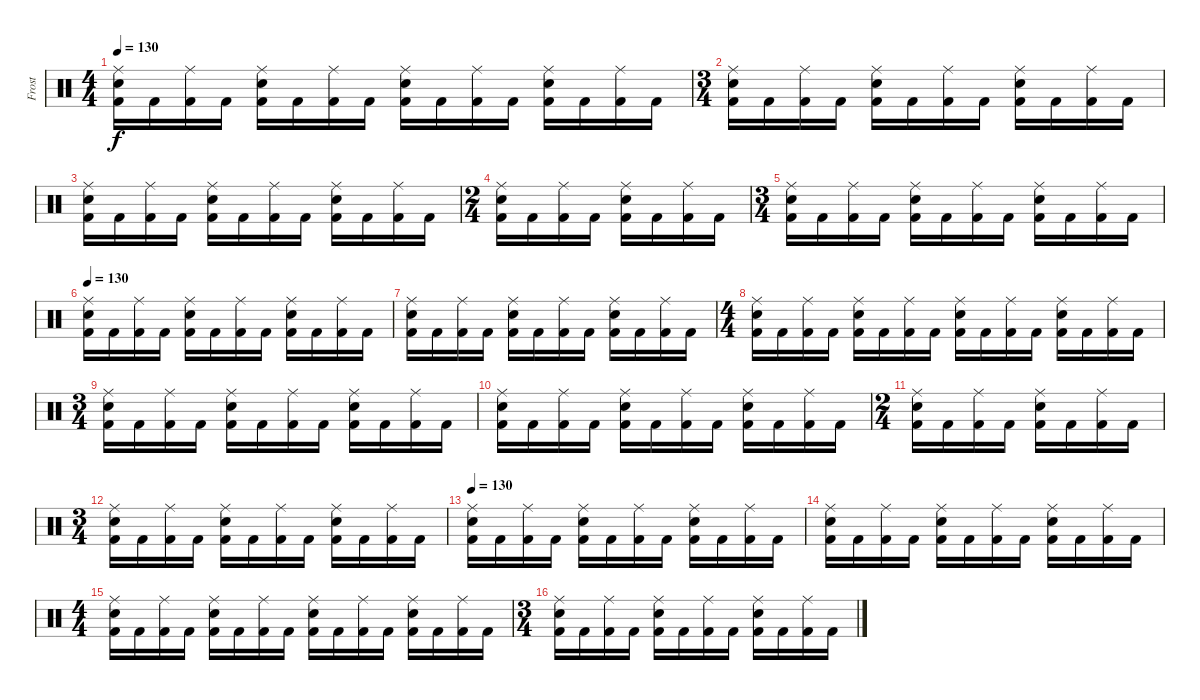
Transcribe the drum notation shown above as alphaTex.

\track ("Frost" "Frost") {instrument percussion}
\staff {score}
\articulation defaults
\ts (4 4)
\tempo 130
\clef neutral
\ks c
("Kick (hit) 2" "Ride (middle)" "Snare (hit) 2").16{dy f} "Kick (hit) 2".16 ("Kick (hit) 2" "Ride (middle)").16 "Kick (hit) 2".16 ("Kick (hit) 2" "Ride (middle)" "Snare (hit) 2").16 "Kick (hit) 2".16 ("Kick (hit) 2" "Ride (middle)").16 "Kick (hit) 2".16 ("Kick (hit) 2" "Ride (middle)" "Snare (hit) 2").16 "Kick (hit) 2".16 ("Kick (hit) 2" "Ride (middle)").16 "Kick (hit) 2".16 ("Kick (hit) 2" "Ride (middle)" "Snare (hit) 2").16 "Kick (hit) 2".16 ("Kick (hit) 2" "Ride (middle)").16 "Kick (hit) 2".16 |
\ts (3 4)
("Kick (hit) 2" "Ride (middle)" "Snare (hit) 2").16 "Kick (hit) 2".16 ("Kick (hit) 2" "Ride (middle)").16 "Kick (hit) 2".16 ("Kick (hit) 2" "Ride (middle)" "Snare (hit) 2").16 "Kick (hit) 2".16 ("Kick (hit) 2" "Ride (middle)").16 "Kick (hit) 2".16 ("Kick (hit) 2" "Ride (middle)" "Snare (hit) 2").16 "Kick (hit) 2".16 ("Kick (hit) 2" "Ride (middle)").16 "Kick (hit) 2".16 |
("Kick (hit) 2" "Ride (middle)" "Snare (hit) 2").16 "Kick (hit) 2".16 ("Kick (hit) 2" "Ride (middle)").16 "Kick (hit) 2".16 ("Kick (hit) 2" "Ride (middle)" "Snare (hit) 2").16 "Kick (hit) 2".16 ("Kick (hit) 2" "Ride (middle)").16 "Kick (hit) 2".16 ("Kick (hit) 2" "Ride (middle)" "Snare (hit) 2").16 "Kick (hit) 2".16 ("Kick (hit) 2" "Ride (middle)").16 "Kick (hit) 2".16 |
\ts (2 4)
("Kick (hit) 2" "Ride (middle)" "Snare (hit) 2").16 "Kick (hit) 2".16 ("Kick (hit) 2" "Ride (middle)").16 "Kick (hit) 2".16 ("Kick (hit) 2" "Ride (middle)" "Snare (hit) 2").16 "Kick (hit) 2".16 ("Kick (hit) 2" "Ride (middle)").16 "Kick (hit) 2".16 |
\ts (3 4)
("Kick (hit) 2" "Ride (middle)" "Snare (hit) 2").16 "Kick (hit) 2".16 ("Kick (hit) 2" "Ride (middle)").16 "Kick (hit) 2".16 ("Kick (hit) 2" "Ride (middle)" "Snare (hit) 2").16 "Kick (hit) 2".16 ("Kick (hit) 2" "Ride (middle)").16 "Kick (hit) 2".16 ("Kick (hit) 2" "Ride (middle)" "Snare (hit) 2").16 "Kick (hit) 2".16 ("Kick (hit) 2" "Ride (middle)").16 "Kick (hit) 2".16 |
\tempo 130
("Kick (hit) 2" "Ride (middle)" "Snare (hit) 2").16 "Kick (hit) 2".16 ("Kick (hit) 2" "Ride (middle)").16 "Kick (hit) 2".16 ("Kick (hit) 2" "Ride (middle)" "Snare (hit) 2").16 "Kick (hit) 2".16 ("Kick (hit) 2" "Ride (middle)").16 "Kick (hit) 2".16 ("Kick (hit) 2" "Ride (middle)" "Snare (hit) 2").16 "Kick (hit) 2".16 ("Kick (hit) 2" "Ride (middle)").16 "Kick (hit) 2".16 |
("Kick (hit) 2" "Ride (middle)" "Snare (hit) 2").16 "Kick (hit) 2".16 ("Kick (hit) 2" "Ride (middle)").16 "Kick (hit) 2".16 ("Kick (hit) 2" "Ride (middle)" "Snare (hit) 2").16 "Kick (hit) 2".16 ("Kick (hit) 2" "Ride (middle)").16 "Kick (hit) 2".16 ("Kick (hit) 2" "Ride (middle)" "Snare (hit) 2").16 "Kick (hit) 2".16 ("Kick (hit) 2" "Ride (middle)").16 "Kick (hit) 2".16 |
\ts (4 4)
("Kick (hit) 2" "Ride (middle)" "Snare (hit) 2").16 "Kick (hit) 2".16 ("Kick (hit) 2" "Ride (middle)").16 "Kick (hit) 2".16 ("Kick (hit) 2" "Ride (middle)" "Snare (hit) 2").16 "Kick (hit) 2".16 ("Kick (hit) 2" "Ride (middle)").16 "Kick (hit) 2".16 ("Kick (hit) 2" "Ride (middle)" "Snare (hit) 2").16 "Kick (hit) 2".16 ("Kick (hit) 2" "Ride (middle)").16 "Kick (hit) 2".16 ("Kick (hit) 2" "Ride (middle)" "Snare (hit) 2").16 "Kick (hit) 2".16 ("Kick (hit) 2" "Ride (middle)").16 "Kick (hit) 2".16 |
\ts (3 4)
("Kick (hit) 2" "Ride (middle)" "Snare (hit) 2").16 "Kick (hit) 2".16 ("Kick (hit) 2" "Ride (middle)").16 "Kick (hit) 2".16 ("Kick (hit) 2" "Ride (middle)" "Snare (hit) 2").16 "Kick (hit) 2".16 ("Kick (hit) 2" "Ride (middle)").16 "Kick (hit) 2".16 ("Kick (hit) 2" "Ride (middle)" "Snare (hit) 2").16 "Kick (hit) 2".16 ("Kick (hit) 2" "Ride (middle)").16 "Kick (hit) 2".16 |
("Kick (hit) 2" "Ride (middle)" "Snare (hit) 2").16 "Kick (hit) 2".16 ("Kick (hit) 2" "Ride (middle)").16 "Kick (hit) 2".16 ("Kick (hit) 2" "Ride (middle)" "Snare (hit) 2").16 "Kick (hit) 2".16 ("Kick (hit) 2" "Ride (middle)").16 "Kick (hit) 2".16 ("Kick (hit) 2" "Ride (middle)" "Snare (hit) 2").16 "Kick (hit) 2".16 ("Kick (hit) 2" "Ride (middle)").16 "Kick (hit) 2".16 |
\ts (2 4)
("Kick (hit) 2" "Ride (middle)" "Snare (hit) 2").16 "Kick (hit) 2".16 ("Kick (hit) 2" "Ride (middle)").16 "Kick (hit) 2".16 ("Kick (hit) 2" "Ride (middle)" "Snare (hit) 2").16 "Kick (hit) 2".16 ("Kick (hit) 2" "Ride (middle)").16 "Kick (hit) 2".16 |
\ts (3 4)
("Kick (hit) 2" "Ride (middle)" "Snare (hit) 2").16 "Kick (hit) 2".16 ("Kick (hit) 2" "Ride (middle)").16 "Kick (hit) 2".16 ("Kick (hit) 2" "Ride (middle)" "Snare (hit) 2").16 "Kick (hit) 2".16 ("Kick (hit) 2" "Ride (middle)").16 "Kick (hit) 2".16 ("Kick (hit) 2" "Ride (middle)" "Snare (hit) 2").16 "Kick (hit) 2".16 ("Kick (hit) 2" "Ride (middle)").16 "Kick (hit) 2".16 |
\tempo 130
("Kick (hit) 2" "Ride (middle)" "Snare (hit) 2").16 "Kick (hit) 2".16 ("Kick (hit) 2" "Ride (middle)").16 "Kick (hit) 2".16 ("Kick (hit) 2" "Ride (middle)" "Snare (hit) 2").16 "Kick (hit) 2".16 ("Kick (hit) 2" "Ride (middle)").16 "Kick (hit) 2".16 ("Kick (hit) 2" "Ride (middle)" "Snare (hit) 2").16 "Kick (hit) 2".16 ("Kick (hit) 2" "Ride (middle)").16 "Kick (hit) 2".16 |
("Kick (hit) 2" "Ride (middle)" "Snare (hit) 2").16 "Kick (hit) 2".16 ("Kick (hit) 2" "Ride (middle)").16 "Kick (hit) 2".16 ("Kick (hit) 2" "Ride (middle)" "Snare (hit) 2").16 "Kick (hit) 2".16 ("Kick (hit) 2" "Ride (middle)").16 "Kick (hit) 2".16 ("Kick (hit) 2" "Ride (middle)" "Snare (hit) 2").16 "Kick (hit) 2".16 ("Kick (hit) 2" "Ride (middle)").16 "Kick (hit) 2".16 |
\ts (4 4)
("Kick (hit) 2" "Ride (middle)" "Snare (hit) 2").16 "Kick (hit) 2".16 ("Kick (hit) 2" "Ride (middle)").16 "Kick (hit) 2".16 ("Kick (hit) 2" "Ride (middle)" "Snare (hit) 2").16 "Kick (hit) 2".16 ("Kick (hit) 2" "Ride (middle)").16 "Kick (hit) 2".16 ("Kick (hit) 2" "Ride (middle)" "Snare (hit) 2").16 "Kick (hit) 2".16 ("Kick (hit) 2" "Ride (middle)").16 "Kick (hit) 2".16 ("Kick (hit) 2" "Ride (middle)" "Snare (hit) 2").16 "Kick (hit) 2".16 ("Kick (hit) 2" "Ride (middle)").16 "Kick (hit) 2".16 |
\ts (3 4)
("Kick (hit) 2" "Ride (middle)" "Snare (hit) 2").16 "Kick (hit) 2".16 ("Kick (hit) 2" "Ride (middle)").16 "Kick (hit) 2".16 ("Kick (hit) 2" "Ride (middle)" "Snare (hit) 2").16 "Kick (hit) 2".16 ("Kick (hit) 2" "Ride (middle)").16 "Kick (hit) 2".16 ("Kick (hit) 2" "Ride (middle)" "Snare (hit) 2").16 "Kick (hit) 2".16 ("Kick (hit) 2" "Ride (middle)").16 "Kick (hit) 2".16
